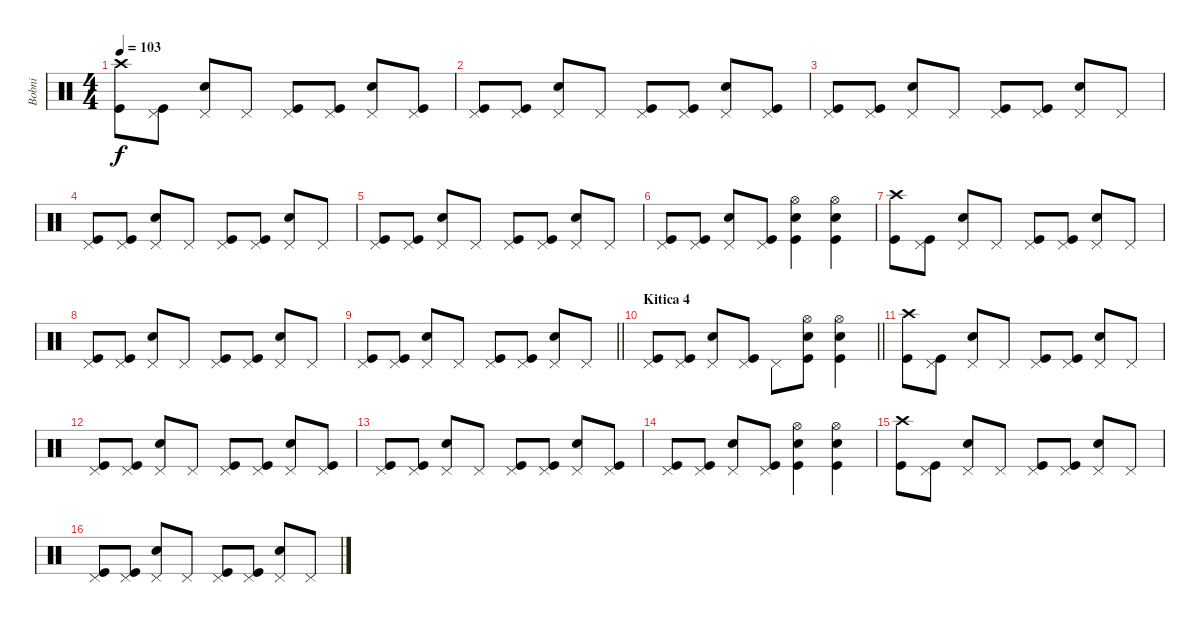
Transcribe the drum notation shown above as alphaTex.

\track ("Bobni" "Bobni") {instrument percussion}
\staff {score}
\articulation defaults
\ts (4 4)
\tempo 103
\clef neutral
\ks aminor
("Crash high (hit)" "Kick (hit)").8{dy f} ("Pedal Hi-Hat (hit)" "Kick (hit)").8 ("Pedal Hi-Hat (hit)" "Snare (hit) 2").8 "Pedal Hi-Hat (hit)".8 ("Pedal Hi-Hat (hit)" "Kick (hit)").8 ("Pedal Hi-Hat (hit)" "Kick (hit)").8 ("Pedal Hi-Hat (hit)" "Snare (hit) 2").8 ("Pedal Hi-Hat (hit)" "Kick (hit)").8 |
("Pedal Hi-Hat (hit)" "Kick (hit)").8 ("Pedal Hi-Hat (hit)" "Kick (hit)").8 ("Pedal Hi-Hat (hit)" "Snare (hit) 2").8 "Pedal Hi-Hat (hit)".8 ("Pedal Hi-Hat (hit)" "Kick (hit)").8 ("Pedal Hi-Hat (hit)" "Kick (hit)").8 ("Pedal Hi-Hat (hit)" "Snare (hit) 2").8 ("Pedal Hi-Hat (hit)" "Kick (hit)").8 |
("Pedal Hi-Hat (hit)" "Kick (hit)").8 ("Pedal Hi-Hat (hit)" "Kick (hit)").8 ("Pedal Hi-Hat (hit)" "Snare (hit) 2").8 "Pedal Hi-Hat (hit)".8 ("Pedal Hi-Hat (hit)" "Kick (hit)").8 ("Pedal Hi-Hat (hit)" "Kick (hit)").8 ("Pedal Hi-Hat (hit)" "Snare (hit) 2").8 "Pedal Hi-Hat (hit)".8 |
("Pedal Hi-Hat (hit)" "Kick (hit)").8 ("Pedal Hi-Hat (hit)" "Kick (hit)").8 ("Pedal Hi-Hat (hit)" "Snare (hit) 2").8 "Pedal Hi-Hat (hit)".8 ("Pedal Hi-Hat (hit)" "Kick (hit)").8 ("Pedal Hi-Hat (hit)" "Kick (hit)").8 ("Pedal Hi-Hat (hit)" "Snare (hit) 2").8 "Pedal Hi-Hat (hit)".8 |
("Pedal Hi-Hat (hit)" "Kick (hit)").8 ("Pedal Hi-Hat (hit)" "Kick (hit)").8 ("Pedal Hi-Hat (hit)" "Snare (hit) 2").8 "Pedal Hi-Hat (hit)".8 ("Pedal Hi-Hat (hit)" "Kick (hit)").8 ("Pedal Hi-Hat (hit)" "Kick (hit)").8 ("Pedal Hi-Hat (hit)" "Snare (hit) 2").8 "Pedal Hi-Hat (hit)".8 |
("Pedal Hi-Hat (hit)" "Kick (hit)").8 ("Pedal Hi-Hat (hit)" "Kick (hit)").8 ("Pedal Hi-Hat (hit)" "Snare (hit) 2").8 ("Pedal Hi-Hat (hit)" "Kick (hit)").8 ("Hi-Hat (open)" "Snare (hit) 2" "Kick (hit)").4 ("Hi-Hat (open)" "Snare (hit) 2" "Kick (hit)").4 |
("Crash high (hit)" "Kick (hit)").8 ("Pedal Hi-Hat (hit)" "Kick (hit)").8 ("Pedal Hi-Hat (hit)" "Snare (hit) 2").8 "Pedal Hi-Hat (hit)".8 ("Pedal Hi-Hat (hit)" "Kick (hit)").8 ("Pedal Hi-Hat (hit)" "Kick (hit)").8 ("Pedal Hi-Hat (hit)" "Snare (hit) 2").8 "Pedal Hi-Hat (hit)".8 |
("Pedal Hi-Hat (hit)" "Kick (hit)").8 ("Pedal Hi-Hat (hit)" "Kick (hit)").8 ("Pedal Hi-Hat (hit)" "Snare (hit) 2").8 "Pedal Hi-Hat (hit)".8 ("Pedal Hi-Hat (hit)" "Kick (hit)").8 ("Pedal Hi-Hat (hit)" "Kick (hit)").8 ("Pedal Hi-Hat (hit)" "Snare (hit) 2").8 "Pedal Hi-Hat (hit)".8 |
\barLineRight lightlight
("Pedal Hi-Hat (hit)" "Kick (hit)").8 ("Pedal Hi-Hat (hit)" "Kick (hit)").8 ("Pedal Hi-Hat (hit)" "Snare (hit) 2").8 "Pedal Hi-Hat (hit)".8 ("Pedal Hi-Hat (hit)" "Kick (hit)").8 ("Pedal Hi-Hat (hit)" "Kick (hit)").8 ("Pedal Hi-Hat (hit)" "Snare (hit) 2").8 "Pedal Hi-Hat (hit)".8 |
\section ("" "Kitica 4")
\barLineRight lightlight
("Pedal Hi-Hat (hit)" "Kick (hit)").8 ("Pedal Hi-Hat (hit)" "Kick (hit)").8 ("Pedal Hi-Hat (hit)" "Snare (hit) 2").8 ("Pedal Hi-Hat (hit)" "Kick (hit)").8 "Pedal Hi-Hat (hit)".8 ("Hi-Hat (open)" "Snare (hit) 2" "Kick (hit)").8 ("Hi-Hat (open)" "Snare (hit) 2" "Kick (hit)").4 |
("Crash high (hit)" "Kick (hit)").8 ("Pedal Hi-Hat (hit)" "Kick (hit)").8 ("Pedal Hi-Hat (hit)" "Snare (hit) 2").8 "Pedal Hi-Hat (hit)".8 ("Pedal Hi-Hat (hit)" "Kick (hit)").8 ("Pedal Hi-Hat (hit)" "Kick (hit)").8 ("Pedal Hi-Hat (hit)" "Snare (hit) 2").8 "Pedal Hi-Hat (hit)".8 |
("Pedal Hi-Hat (hit)" "Kick (hit)").8 ("Pedal Hi-Hat (hit)" "Kick (hit)").8 ("Pedal Hi-Hat (hit)" "Snare (hit) 2").8 "Pedal Hi-Hat (hit)".8 ("Pedal Hi-Hat (hit)" "Kick (hit)").8 ("Pedal Hi-Hat (hit)" "Kick (hit)").8 ("Pedal Hi-Hat (hit)" "Snare (hit) 2").8 ("Pedal Hi-Hat (hit)" "Kick (hit)").8 |
("Pedal Hi-Hat (hit)" "Kick (hit)").8 ("Pedal Hi-Hat (hit)" "Kick (hit)").8 ("Pedal Hi-Hat (hit)" "Snare (hit) 2").8 "Pedal Hi-Hat (hit)".8 ("Pedal Hi-Hat (hit)" "Kick (hit)").8 ("Pedal Hi-Hat (hit)" "Kick (hit)").8 ("Pedal Hi-Hat (hit)" "Snare (hit) 2").8 ("Pedal Hi-Hat (hit)" "Kick (hit)").8 |
("Pedal Hi-Hat (hit)" "Kick (hit)").8 ("Pedal Hi-Hat (hit)" "Kick (hit)").8 ("Pedal Hi-Hat (hit)" "Snare (hit) 2").8 ("Pedal Hi-Hat (hit)" "Kick (hit)").8 ("Hi-Hat (open)" "Snare (hit) 2" "Kick (hit)").4 ("Hi-Hat (open)" "Snare (hit) 2" "Kick (hit)").4 |
("Crash high (hit)" "Kick (hit)").8 ("Pedal Hi-Hat (hit)" "Kick (hit)").8 ("Pedal Hi-Hat (hit)" "Snare (hit) 2").8 "Pedal Hi-Hat (hit)".8 ("Pedal Hi-Hat (hit)" "Kick (hit)").8 ("Pedal Hi-Hat (hit)" "Kick (hit)").8 ("Pedal Hi-Hat (hit)" "Snare (hit) 2").8 "Pedal Hi-Hat (hit)".8 |
("Pedal Hi-Hat (hit)" "Kick (hit)").8 ("Pedal Hi-Hat (hit)" "Kick (hit)").8 ("Pedal Hi-Hat (hit)" "Snare (hit) 2").8 "Pedal Hi-Hat (hit)".8 ("Pedal Hi-Hat (hit)" "Kick (hit)").8 ("Pedal Hi-Hat (hit)" "Kick (hit)").8 ("Pedal Hi-Hat (hit)" "Snare (hit) 2").8 "Pedal Hi-Hat (hit)".8
